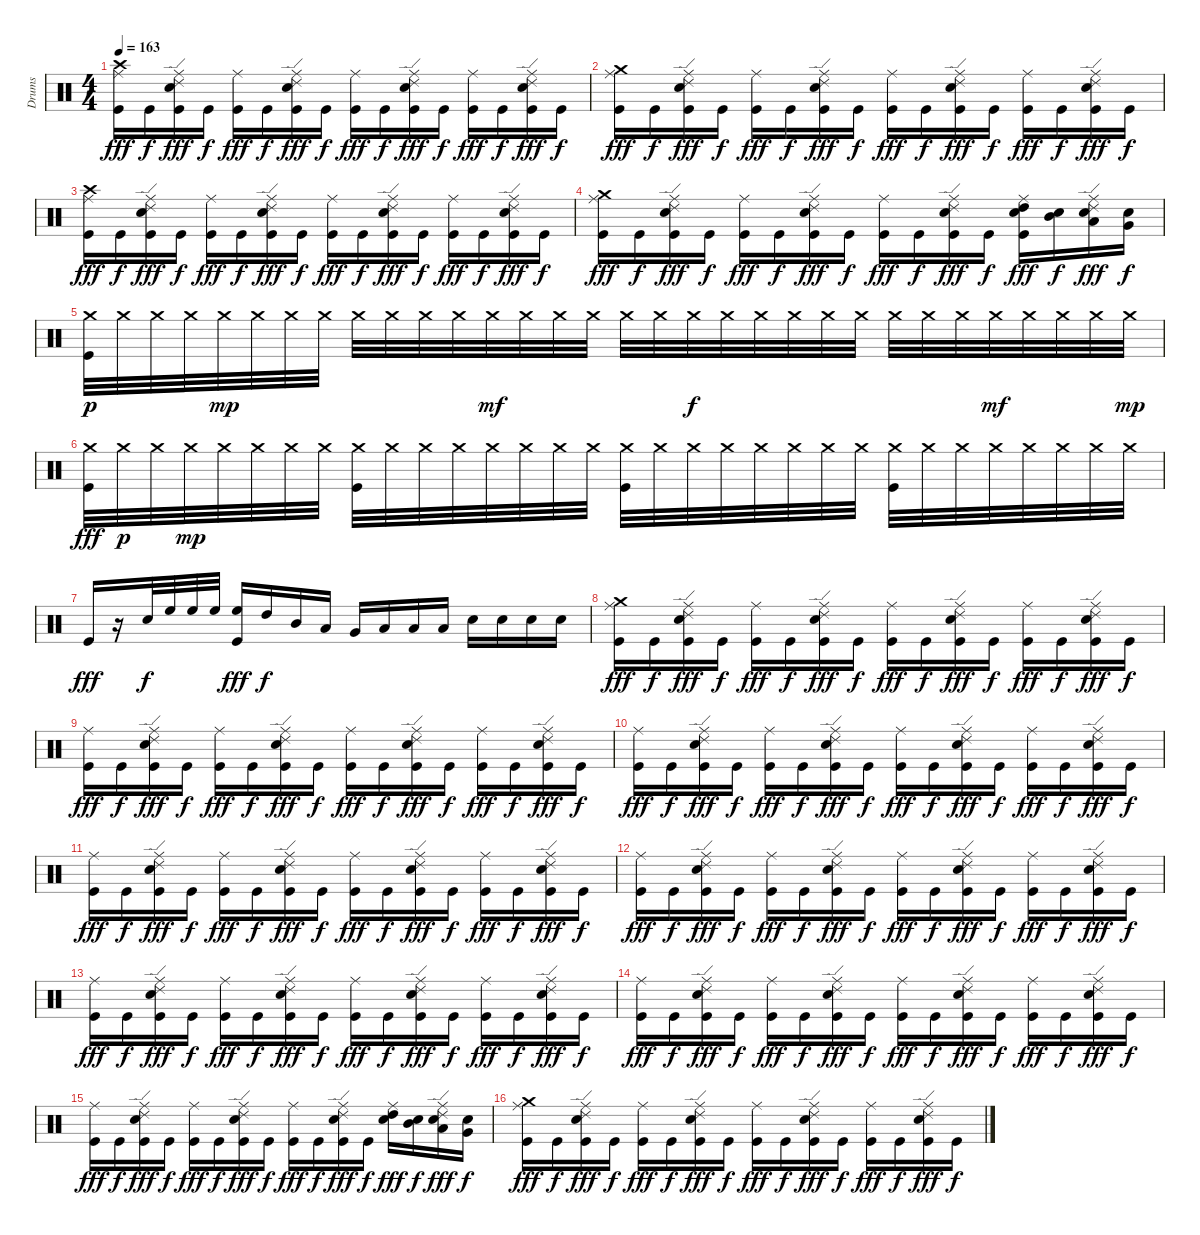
\track ("Drums" "Drums") {instrument percussion}
\staff {score}
\articulation defaults
\ts (4 4)
\tempo 163
\clef neutral
\ks c
("Crash high (hit)" "Kick (hit)" "Ride (middle)").16{dy fff} "Kick (hit)".16{dy f} ("Kick (hit)" "Electric Snare (hit)" "Ride (middle)" "Ride (edge) 2").16{dy fff} "Kick (hit)".16{dy f} ("Kick (hit)" "Ride (middle)").16{dy fff} "Kick (hit)".16{dy f} ("Kick (hit)" "Ride (edge) 2" "Electric Snare (hit)" "Ride (middle)").16{dy fff} "Kick (hit)".16{dy f} ("Kick (hit)" "Ride (middle)").16{dy fff} "Kick (hit)".16{dy f} ("Ride (edge) 2" "Electric Snare (hit)" "Kick (hit)" "Ride (middle)").16{dy fff} "Kick (hit)".16{dy f} ("Kick (hit)" "Ride (middle)").16{dy fff} "Kick (hit)".16{dy f} ("Ride (middle)" "Ride (edge) 2" "Electric Snare (hit)" "Kick (hit)").16{dy fff} "Kick (hit)".16{dy f} |
("Crash medium (hit)" "Ride (middle)" "Kick (hit)").16{dy fff} "Kick (hit)".16{dy f} ("Electric Snare (hit)" "Kick (hit)" "Ride (middle)" "Ride (edge) 2").16{dy fff} "Kick (hit)".16{dy f} ("Kick (hit)" "Ride (middle)").16{dy fff} "Kick (hit)".16{dy f} ("Electric Snare (hit)" "Kick (hit)" "Ride (middle)" "Ride (edge) 2").16{dy fff} "Kick (hit)".16{dy f} ("Ride (middle)" "Kick (hit)").16{dy fff} "Kick (hit)".16{dy f} ("Ride (middle)" "Ride (edge) 2" "Kick (hit)" "Electric Snare (hit)").16{dy fff} "Kick (hit)".16{dy f} ("Ride (middle)" "Kick (hit)").16{dy fff} "Kick (hit)".16{dy f} ("Electric Snare (hit)" "Kick (hit)" "Ride (middle)" "Ride (edge) 2").16{dy fff} "Kick (hit)".16{dy f} |
("Crash high (hit)" "Kick (hit)" "Ride (middle)").16{dy fff} "Kick (hit)".16{dy f} ("Ride (middle)" "Kick (hit)" "Ride (edge) 2" "Electric Snare (hit)").16{dy fff} "Kick (hit)".16{dy f} ("Kick (hit)" "Ride (middle)").16{dy fff} "Kick (hit)".16{dy f} ("Ride (edge) 2" "Electric Snare (hit)" "Kick (hit)" "Ride (middle)").16{dy fff} "Kick (hit)".16{dy f} ("Ride (middle)" "Kick (hit)").16{dy fff} "Kick (hit)".16{dy f} ("Ride (middle)" "Ride (edge) 2" "Electric Snare (hit)" "Kick (hit)").16{dy fff} "Kick (hit)".16{dy f} ("Ride (middle)" "Kick (hit)").16{dy fff} "Kick (hit)".16{dy f} ("Kick (hit)" "Electric Snare (hit)" "Ride (edge) 2" "Ride (middle)").16{dy fff} "Kick (hit)".16{dy f} |
("Crash medium (hit)" "Ride (middle)" "Kick (hit)").16{dy fff} "Kick (hit)".16{dy f} ("Electric Snare (hit)" "Kick (hit)" "Ride (middle)" "Ride (edge) 2").16{dy fff} "Kick (hit)".16{dy f} ("Kick (hit)" "Ride (middle)").16{dy fff} "Kick (hit)".16{dy f} ("Electric Snare (hit)" "Kick (hit)" "Ride (middle)" "Ride (edge) 2").16{dy fff} "Kick (hit)".16{dy f} ("Kick (hit)" "Ride (middle)").16{dy fff} "Kick (hit)".16{dy f} ("Kick (hit)" "Ride (edge) 2" "Electric Snare (hit)" "Ride (middle)").16{dy fff} "Kick (hit)".16{dy f} ("Electric Snare (hit)" "High Tom (hit)" "Ride (middle)" "Kick (hit)").16{dy fff} ("Electric Snare (hit)" "Mid Tom (hit)").16{dy f} ("Low Tom (hit)" "Ride (edge) 2" "Electric Snare (hit)" "Ride (middle)").16{dy fff} ("Electric Snare (hit)" "Very Low Tom (hit)").16{dy f} |
("Kick (hit)" "Crash medium (hit)").32{dy p} "Crash medium (hit)".32 "Crash medium (hit)".32 "Crash medium (hit)".32 "Crash medium (hit)".32{dy mp} "Crash medium (hit)".32 "Crash medium (hit)".32 "Crash medium (hit)".32 "Crash medium (hit)".32 "Crash medium (hit)".32 "Crash medium (hit)".32 "Crash medium (hit)".32 "Crash medium (hit)".32{dy mf} "Crash medium (hit)".32 "Crash medium (hit)".32 "Crash medium (hit)".32 "Crash medium (hit)".32 "Crash medium (hit)".32 "Crash medium (hit)".32{dy f} "Crash medium (hit)".32 "Crash medium (hit)".32 "Crash medium (hit)".32 "Crash medium (hit)".32 "Crash medium (hit)".32 "Crash medium (hit)".32 "Crash medium (hit)".32 "Crash medium (hit)".32 "Crash medium (hit)".32{dy mf} "Crash medium (hit)".32 "Crash medium (hit)".32 "Crash medium (hit)".32 "Crash medium (hit)".32{dy mp} |
("Crash medium (hit)" "Kick (hit)").32{dy fff} "Crash medium (hit)".32{dy p} "Crash medium (hit)".32 "Crash medium (hit)".32{dy mp} "Crash medium (hit)".32 "Crash medium (hit)".32 "Crash medium (hit)".32 "Crash medium (hit)".32 ("Kick (hit)" "Crash medium (hit)").32 "Crash medium (hit)".32 "Crash medium (hit)".32 "Crash medium (hit)".32 "Crash medium (hit)".32 "Crash medium (hit)".32 "Crash medium (hit)".32 "Crash medium (hit)".32 ("Kick (hit)" "Crash medium (hit)").32 "Crash medium (hit)".32 "Crash medium (hit)".32 "Crash medium (hit)".32 "Crash medium (hit)".32 "Crash medium (hit)".32 "Crash medium (hit)".32 "Crash medium (hit)".32 ("Kick (hit)" "Crash medium (hit)").32 "Crash medium (hit)".32 "Crash medium (hit)".32 "Crash medium (hit)".32 "Crash medium (hit)".32 "Crash medium (hit)".32 "Crash medium (hit)".32 "Crash medium (hit)".32 |
"Kick (hit)".16{dy fff} r.16 "Electric Snare (hit)".32{dy f} "High Floor Tom (hit)".32 "High Floor Tom (hit)".32 "High Floor Tom (hit)".32 ("Kick (hit)" "High Floor Tom (hit)").16{dy fff} "High Tom (hit)".16{dy f} "Mid Tom (hit)".16 "Low Tom (hit)".16 "Very Low Tom (hit)".16 "Low Floor Tom (hit)".16 "Low Floor Tom (hit)".16 "Low Floor Tom (hit)".16 "Electric Snare (hit)".16 "Electric Snare (hit)".16 "Electric Snare (hit)".16 "Electric Snare (hit)".16 |
("Ride (middle)" "Crash medium (hit)" "Kick (hit)").16{dy fff} "Kick (hit)".16{dy f} ("Ride (middle)" "Kick (hit)" "Ride (edge) 2" "Electric Snare (hit)").16{dy fff} "Kick (hit)".16{dy f} ("Kick (hit)" "Ride (middle)").16{dy fff} "Kick (hit)".16{dy f} ("Ride (edge) 2" "Electric Snare (hit)" "Kick (hit)" "Ride (middle)").16{dy fff} "Kick (hit)".16{dy f} ("Ride (middle)" "Kick (hit)").16{dy fff} "Kick (hit)".16{dy f} ("Kick (hit)" "Ride (middle)" "Electric Snare (hit)" "Ride (edge) 2").16{dy fff} "Kick (hit)".16{dy f} ("Ride (middle)" "Kick (hit)").16{dy fff} "Kick (hit)".16{dy f} ("Electric Snare (hit)" "Kick (hit)" "Ride (middle)" "Ride (edge) 2").16{dy fff} "Kick (hit)".16{dy f} |
("Kick (hit)" "Ride (middle)").16{dy fff} "Kick (hit)".16{dy f} ("Ride (middle)" "Kick (hit)" "Ride (edge) 2" "Electric Snare (hit)").16{dy fff} "Kick (hit)".16{dy f} ("Kick (hit)" "Ride (middle)").16{dy fff} "Kick (hit)".16{dy f} ("Ride (edge) 2" "Electric Snare (hit)" "Kick (hit)" "Ride (middle)").16{dy fff} "Kick (hit)".16{dy f} ("Ride (middle)" "Kick (hit)").16{dy fff} "Kick (hit)".16{dy f} ("Ride (middle)" "Ride (edge) 2" "Electric Snare (hit)" "Kick (hit)").16{dy fff} "Kick (hit)".16{dy f} ("Kick (hit)" "Ride (middle)").16{dy fff} "Kick (hit)".16{dy f} ("Kick (hit)" "Ride (edge) 2" "Electric Snare (hit)" "Ride (middle)").16{dy fff} "Kick (hit)".16{dy f} |
("Ride (middle)" "Kick (hit)").16{dy fff} "Kick (hit)".16{dy f} ("Electric Snare (hit)" "Kick (hit)" "Ride (edge) 2" "Ride (middle)").16{dy fff} "Kick (hit)".16{dy f} ("Ride (middle)" "Kick (hit)").16{dy fff} "Kick (hit)".16{dy f} ("Ride (middle)" "Ride (edge) 2" "Kick (hit)" "Electric Snare (hit)").16{dy fff} "Kick (hit)".16{dy f} ("Kick (hit)" "Ride (middle)").16{dy fff} "Kick (hit)".16{dy f} ("Electric Snare (hit)" "Kick (hit)" "Ride (middle)" "Ride (edge) 2").16{dy fff} "Kick (hit)".16{dy f} ("Ride (middle)" "Kick (hit)").16{dy fff} "Kick (hit)".16{dy f} ("Kick (hit)" "Ride (edge) 2" "Electric Snare (hit)" "Ride (middle)").16{dy fff} "Kick (hit)".16{dy f} |
("Kick (hit)" "Ride (middle)").16{dy fff} "Kick (hit)".16{dy f} ("Kick (hit)" "Electric Snare (hit)" "Ride (middle)" "Ride (edge) 2").16{dy fff} "Kick (hit)".16{dy f} ("Kick (hit)" "Ride (middle)").16{dy fff} "Kick (hit)".16{dy f} ("Kick (hit)" "Ride (edge) 2" "Electric Snare (hit)" "Ride (middle)").16{dy fff} "Kick (hit)".16{dy f} ("Kick (hit)" "Ride (middle)").16{dy fff} "Kick (hit)".16{dy f} ("Ride (edge) 2" "Electric Snare (hit)" "Kick (hit)" "Ride (middle)").16{dy fff} "Kick (hit)".16{dy f} ("Kick (hit)" "Ride (middle)").16{dy fff} "Kick (hit)".16{dy f} ("Ride (middle)" "Ride (edge) 2" "Electric Snare (hit)" "Kick (hit)").16{dy fff} "Kick (hit)".16{dy f} |
("Ride (middle)" "Kick (hit)").16{dy fff} "Kick (hit)".16{dy f} ("Electric Snare (hit)" "Kick (hit)" "Ride (middle)" "Ride (edge) 2").16{dy fff} "Kick (hit)".16{dy f} ("Kick (hit)" "Ride (middle)").16{dy fff} "Kick (hit)".16{dy f} ("Electric Snare (hit)" "Kick (hit)" "Ride (middle)" "Ride (edge) 2").16{dy fff} "Kick (hit)".16{dy f} ("Ride (middle)" "Kick (hit)").16{dy fff} "Kick (hit)".16{dy f} ("Ride (middle)" "Ride (edge) 2" "Kick (hit)" "Electric Snare (hit)").16{dy fff} "Kick (hit)".16{dy f} ("Ride (middle)" "Kick (hit)").16{dy fff} "Kick (hit)".16{dy f} ("Electric Snare (hit)" "Kick (hit)" "Ride (middle)" "Ride (edge) 2").16{dy fff} "Kick (hit)".16{dy f} |
("Kick (hit)" "Ride (middle)").16{dy fff} "Kick (hit)".16{dy f} ("Ride (middle)" "Kick (hit)" "Ride (edge) 2" "Electric Snare (hit)").16{dy fff} "Kick (hit)".16{dy f} ("Kick (hit)" "Ride (middle)").16{dy fff} "Kick (hit)".16{dy f} ("Ride (edge) 2" "Electric Snare (hit)" "Kick (hit)" "Ride (middle)").16{dy fff} "Kick (hit)".16{dy f} ("Ride (middle)" "Kick (hit)").16{dy fff} "Kick (hit)".16{dy f} ("Ride (middle)" "Ride (edge) 2" "Electric Snare (hit)" "Kick (hit)").16{dy fff} "Kick (hit)".16{dy f} ("Ride (middle)" "Kick (hit)").16{dy fff} "Kick (hit)".16{dy f} ("Kick (hit)" "Electric Snare (hit)" "Ride (edge) 2" "Ride (middle)").16{dy fff} "Kick (hit)".16{dy f} |
("Ride (middle)" "Kick (hit)").16{dy fff} "Kick (hit)".16{dy f} ("Electric Snare (hit)" "Kick (hit)" "Ride (middle)" "Ride (edge) 2").16{dy fff} "Kick (hit)".16{dy f} ("Kick (hit)" "Ride (middle)").16{dy fff} "Kick (hit)".16{dy f} ("Electric Snare (hit)" "Kick (hit)" "Ride (middle)" "Ride (edge) 2").16{dy fff} "Kick (hit)".16{dy f} ("Kick (hit)" "Ride (middle)").16{dy fff} "Kick (hit)".16{dy f} ("Kick (hit)" "Ride (edge) 2" "Electric Snare (hit)" "Ride (middle)").16{dy fff} "Kick (hit)".16{dy f} ("Ride (middle)" "Kick (hit)").16{dy fff} "Kick (hit)".16{dy f} ("Ride (edge) 2" "Electric Snare (hit)" "Kick (hit)" "Ride (middle)").16{dy fff} "Kick (hit)".16{dy f} |
("Ride (middle)" "Kick (hit)").16{dy fff} "Kick (hit)".16{dy f} ("Ride (middle)" "Kick (hit)" "Ride (edge) 2" "Electric Snare (hit)").16{dy fff} "Kick (hit)".16{dy f} ("Kick (hit)" "Ride (middle)").16{dy fff} "Kick (hit)".16{dy f} ("Ride (edge) 2" "Electric Snare (hit)" "Kick (hit)" "Ride (middle)").16{dy fff} "Kick (hit)".16{dy f} ("Ride (middle)" "Kick (hit)").16{dy fff} "Kick (hit)".16{dy f} ("Ride (middle)" "Ride (edge) 2" "Electric Snare (hit)" "Kick (hit)").16{dy fff} "Kick (hit)".16{dy f} ("Electric Snare (hit)" "Ride (middle)" "High Tom (hit)").16{dy fff} ("Electric Snare (hit)" "Mid Tom (hit)").16{dy f} ("Electric Snare (hit)" "Low Tom (hit)" "Ride (edge) 2" "Ride (middle)").16{dy fff} ("Very Low Tom (hit)" "Electric Snare (hit)").16{dy f} |
("Ride (middle)" "Kick (hit)" "Crash medium (hit)").16{dy fff} "Kick (hit)".16{dy f} ("Electric Snare (hit)" "Kick (hit)" "Ride (middle)" "Ride (edge) 2").16{dy fff} "Kick (hit)".16{dy f} ("Kick (hit)" "Ride (middle)").16{dy fff} "Kick (hit)".16{dy f} ("Ride (edge) 2" "Ride (middle)" "Kick (hit)" "Electric Snare (hit)").16{dy fff} "Kick (hit)".16{dy f} ("Ride (middle)" "Kick (hit)").16{dy fff} "Kick (hit)".16{dy f} ("Ride (middle)" "Ride (edge) 2" "Kick (hit)" "Electric Snare (hit)").16{dy fff} "Kick (hit)".16{dy f} ("Ride (middle)" "Kick (hit)").16{dy fff} "Kick (hit)".16{dy f} ("Electric Snare (hit)" "Kick (hit)" "Ride (middle)" "Ride (edge) 2").16{dy fff} "Kick (hit)".16{dy f}
